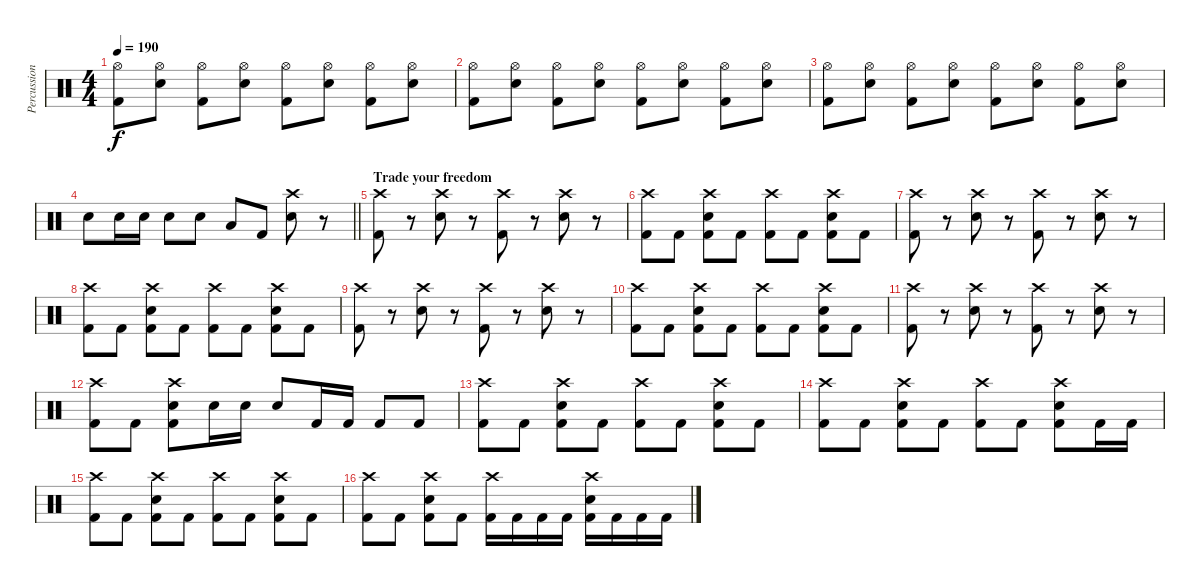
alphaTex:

\track ("Percussion" "Percussion") {instrument percussion}
\staff {score}
\articulation defaults
\ts (4 4)
\tempo 190
\clef neutral
\ks c
("Hi-Hat (open)" "Kick (hit) 2").8{dy f} ("Hi-Hat (open)" "Snare (hit) 2").8 ("Hi-Hat (open)" "Kick (hit) 2").8 ("Hi-Hat (open)" "Snare (hit) 2").8 ("Hi-Hat (open)" "Kick (hit) 2").8 ("Hi-Hat (open)" "Snare (hit) 2").8 ("Hi-Hat (open)" "Kick (hit) 2").8 ("Hi-Hat (open)" "Snare (hit) 2").8 |
("Hi-Hat (open)" "Kick (hit) 2").8 ("Hi-Hat (open)" "Snare (hit) 2").8 ("Hi-Hat (open)" "Kick (hit) 2").8 ("Hi-Hat (open)" "Snare (hit) 2").8 ("Hi-Hat (open)" "Kick (hit) 2").8 ("Hi-Hat (open)" "Snare (hit) 2").8 ("Hi-Hat (open)" "Kick (hit) 2").8 ("Hi-Hat (open)" "Snare (hit) 2").8 |
("Hi-Hat (open)" "Kick (hit) 2").8 ("Hi-Hat (open)" "Snare (hit) 2").8 ("Hi-Hat (open)" "Kick (hit) 2").8 ("Hi-Hat (open)" "Snare (hit) 2").8 ("Hi-Hat (open)" "Kick (hit) 2").8 ("Hi-Hat (open)" "Snare (hit) 2").8 ("Hi-Hat (open)" "Kick (hit) 2").8 ("Hi-Hat (open)" "Snare (hit) 2").8 |
\barLineRight lightlight "Snare (hit) 2".8 "Snare (hit) 2".16 "Snare (hit) 2".16 "Snare (hit) 2".8 "Snare (hit) 2".8 "Low Tom (hit)".8 "Kick (hit) 2".8
("Crash high (hit)" "Snare (hit) 2").8 r.8 |
\section ("" "Trade your freedom")
("Crash high (hit)" "Kick (hit) 2").8 r.8 ("Crash high (hit)" "Snare (hit) 2").8 r.8 ("Crash high (hit)" "Kick (hit) 2").8 r.8 ("Crash high (hit)" "Snare (hit) 2").8 r.8 |
("Crash high (hit)" "Kick (hit) 2").8 "Kick (hit) 2".8 ("Crash high (hit)" "Snare (hit) 2" "Kick (hit) 2").8 "Kick (hit) 2".8 ("Crash high (hit)" "Kick (hit) 2").8 "Kick (hit) 2".8 ("Crash high (hit)" "Snare (hit) 2" "Kick (hit) 2").8 "Kick (hit) 2".8 |
("Crash high (hit)" "Kick (hit) 2").8 r.8 ("Crash high (hit)" "Snare (hit) 2").8 r.8 ("Crash high (hit)" "Kick (hit) 2").8 r.8 ("Crash high (hit)" "Snare (hit) 2").8 r.8 |
("Crash high (hit)" "Kick (hit) 2").8 "Kick (hit) 2".8 ("Crash high (hit)" "Snare (hit) 2" "Kick (hit) 2").8 "Kick (hit) 2".8 ("Crash high (hit)" "Kick (hit) 2").8 "Kick (hit) 2".8 ("Crash high (hit)" "Snare (hit) 2" "Kick (hit) 2").8 "Kick (hit) 2".8 |
("Crash high (hit)" "Kick (hit) 2").8 r.8 ("Crash high (hit)" "Snare (hit) 2").8 r.8 ("Crash high (hit)" "Kick (hit) 2").8 r.8 ("Crash high (hit)" "Snare (hit) 2").8 r.8 |
("Crash high (hit)" "Kick (hit) 2").8 "Kick (hit) 2".8 ("Crash high (hit)" "Snare (hit) 2" "Kick (hit) 2").8 "Kick (hit) 2".8 ("Crash high (hit)" "Kick (hit) 2").8 "Kick (hit) 2".8 ("Crash high (hit)" "Snare (hit) 2" "Kick (hit) 2").8 "Kick (hit) 2".8 |
("Crash high (hit)" "Kick (hit) 2").8 r.8 ("Crash high (hit)" "Snare (hit) 2").8 r.8 ("Crash high (hit)" "Kick (hit) 2").8 r.8 ("Crash high (hit)" "Snare (hit) 2").8 r.8 |
("Crash high (hit)" "Kick (hit) 2").8 "Kick (hit) 2".8 ("Crash high (hit)" "Snare (hit) 2" "Kick (hit) 2").8 "Snare (hit) 2".16 "Snare (hit) 2".16 "Snare (hit) 2".8 "Kick (hit) 2".16 "Kick (hit) 2".16 "Kick (hit) 2".8 "Kick (hit) 2".8 |
("Crash high (hit)" "Kick (hit) 2").8 "Kick (hit) 2".8 ("Crash high (hit)" "Snare (hit) 2" "Kick (hit) 2").8 "Kick (hit) 2".8 ("Crash high (hit)" "Kick (hit) 2").8 "Kick (hit) 2".8 ("Crash high (hit)" "Snare (hit) 2" "Kick (hit) 2").8 "Kick (hit) 2".8 |
("Crash high (hit)" "Kick (hit) 2").8 "Kick (hit) 2".8 ("Crash high (hit)" "Snare (hit) 2" "Kick (hit) 2").8 "Kick (hit) 2".8 ("Crash high (hit)" "Kick (hit) 2").8 "Kick (hit) 2".8 ("Crash high (hit)" "Snare (hit) 2" "Kick (hit) 2").8 "Kick (hit) 2".16 "Kick (hit) 2".16 |
("Crash high (hit)" "Kick (hit) 2").8 "Kick (hit) 2".8 ("Crash high (hit)" "Snare (hit) 2" "Kick (hit) 2").8 "Kick (hit) 2".8 ("Crash high (hit)" "Kick (hit) 2").8 "Kick (hit) 2".8 ("Crash high (hit)" "Snare (hit) 2" "Kick (hit) 2").8 "Kick (hit) 2".8 |
("Crash high (hit)" "Kick (hit) 2").8 "Kick (hit) 2".8 ("Crash high (hit)" "Snare (hit) 2" "Kick (hit) 2").8 "Kick (hit) 2".8 ("Crash high (hit)" "Kick (hit) 2").16 "Kick (hit) 2".16 "Kick (hit) 2".16 "Kick (hit) 2".16 ("Crash high (hit)" "Snare (hit) 2" "Kick (hit) 2").16 "Kick (hit) 2".16 "Kick (hit) 2".16 "Kick (hit) 2".16
